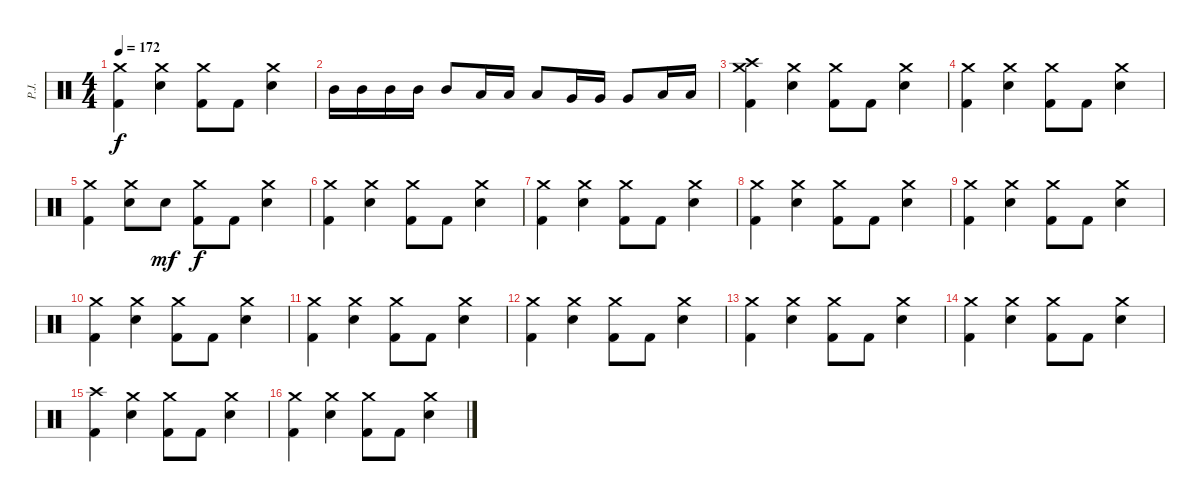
\track ("P.J." "P.J.") {instrument percussion}
\staff {score}
\articulation defaults
\ts (4 4)
\tempo 172
\clef neutral
\ks c
("Crash medium (hit)" "Kick (hit) 2").4{dy f} ("Crash medium (hit)" "Electric Snare (hit)").4 ("Crash medium (hit)" "Kick (hit) 2").8 "Kick (hit) 2".8 ("Crash medium (hit)" "Electric Snare (hit)").4 |
"Mid Tom (hit)".16 "Mid Tom (hit)".16 "Mid Tom (hit)".16 "Mid Tom (hit)".16 "Mid Tom (hit)".8 "Low Tom (hit)".16 "Low Tom (hit)".16 "Low Tom (hit)".8 "Very Low Tom (hit)".16 "Very Low Tom (hit)".16 "Very Low Tom (hit)".8 "Low Floor Tom (hit)".16 "Low Floor Tom (hit)".16 |
("Crash high (hit)" "Crash medium (hit)" "Kick (hit) 2").4 ("Crash medium (hit)" "Electric Snare (hit)").4 ("Crash medium (hit)" "Kick (hit) 2").8 "Kick (hit) 2".8 ("Crash medium (hit)" "Electric Snare (hit)").4 |
("Crash medium (hit)" "Kick (hit) 2").4 ("Crash medium (hit)" "Electric Snare (hit)").4 ("Crash medium (hit)" "Kick (hit) 2").8 "Kick (hit) 2".8 ("Crash medium (hit)" "Electric Snare (hit)").4 |
("Crash medium (hit)" "Kick (hit) 2").4 ("Crash medium (hit)" "Electric Snare (hit)").8 "Electric Snare (hit)".8{dy mf} ("Crash medium (hit)" "Kick (hit) 2").8{dy f} "Kick (hit) 2".8 ("Crash medium (hit)" "Electric Snare (hit)").4 |
("Crash medium (hit)" "Kick (hit) 2").4 ("Crash medium (hit)" "Electric Snare (hit)").4 ("Crash medium (hit)" "Kick (hit) 2").8 "Kick (hit) 2".8 ("Crash medium (hit)" "Electric Snare (hit)").4 |
("Crash medium (hit)" "Kick (hit) 2").4 ("Crash medium (hit)" "Electric Snare (hit)").4 ("Crash medium (hit)" "Kick (hit) 2").8 "Kick (hit) 2".8 ("Crash medium (hit)" "Electric Snare (hit)").4 |
("Crash medium (hit)" "Kick (hit) 2").4 ("Crash medium (hit)" "Electric Snare (hit)").4 ("Crash medium (hit)" "Kick (hit) 2").8 "Kick (hit) 2".8 ("Crash medium (hit)" "Electric Snare (hit)").4 |
("Crash medium (hit)" "Kick (hit) 2").4{volume 10} ("Crash medium (hit)" "Electric Snare (hit)").4 ("Crash medium (hit)" "Kick (hit) 2").8 "Kick (hit) 2".8 ("Crash medium (hit)" "Electric Snare (hit)").4 |
("Crash medium (hit)" "Kick (hit) 2").4 ("Crash medium (hit)" "Electric Snare (hit)").4 ("Crash medium (hit)" "Kick (hit) 2").8 "Kick (hit) 2".8 ("Crash medium (hit)" "Electric Snare (hit)").4 |
("Crash medium (hit)" "Kick (hit) 2").4 ("Crash medium (hit)" "Electric Snare (hit)").4 ("Crash medium (hit)" "Kick (hit) 2").8 "Kick (hit) 2".8 ("Crash medium (hit)" "Electric Snare (hit)").4 |
("Crash medium (hit)" "Kick (hit) 2").4 ("Crash medium (hit)" "Electric Snare (hit)").4 ("Crash medium (hit)" "Kick (hit) 2").8 "Kick (hit) 2".8 ("Crash medium (hit)" "Electric Snare (hit)").4 |
("Crash medium (hit)" "Kick (hit) 2").4 ("Crash medium (hit)" "Electric Snare (hit)").4 ("Crash medium (hit)" "Kick (hit) 2").8 "Kick (hit) 2".8 ("Crash medium (hit)" "Electric Snare (hit)").4 |
("Crash medium (hit)" "Kick (hit) 2").4 ("Crash medium (hit)" "Electric Snare (hit)").4 ("Crash medium (hit)" "Kick (hit) 2").8 "Kick (hit) 2".8 ("Crash medium (hit)" "Electric Snare (hit)").4 |
("Crash high (hit)" "Kick (hit) 2").4 ("Crash medium (hit)" "Electric Snare (hit)").4 ("Crash medium (hit)" "Kick (hit) 2").8 "Kick (hit) 2".8 ("Crash medium (hit)" "Electric Snare (hit)").4 |
("Crash medium (hit)" "Kick (hit) 2").4 ("Crash medium (hit)" "Electric Snare (hit)").4 ("Crash medium (hit)" "Kick (hit) 2").8 "Kick (hit) 2".8 ("Crash medium (hit)" "Electric Snare (hit)").4
